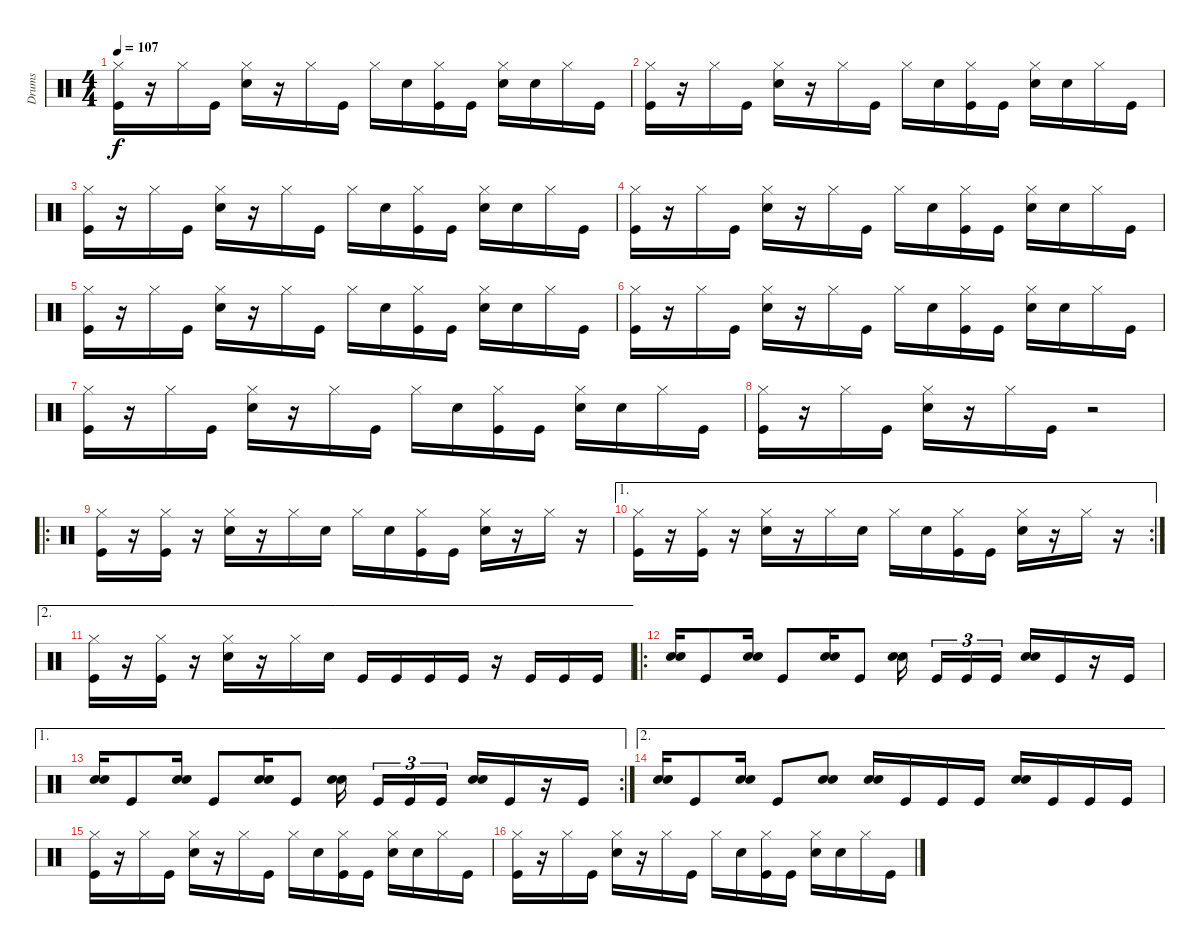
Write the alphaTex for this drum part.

\track ("Drums" "Drums") {instrument percussion}
\staff {score}
\articulation defaults
\ts (4 4)
\tempo 107
\clef neutral
\ks c
("Hi-Hat (closed)" "Kick (hit)").16{dy f} r.16 "Hi-Hat (closed)".16 "Kick (hit)".16 ("Hi-Hat (closed)" "Snare (hit) 2").16 r.16 "Hi-Hat (closed)".16 "Kick (hit)".16 "Hi-Hat (closed)".16 "Snare (hit) 2".16 ("Hi-Hat (closed)" "Kick (hit)").16 "Kick (hit)".16 ("Hi-Hat (closed)" "Snare (hit) 2").16 "Snare (hit) 2".16 "Hi-Hat (closed)".16 "Kick (hit)".16 |
("Hi-Hat (closed)" "Kick (hit)").16 r.16 "Hi-Hat (closed)".16 "Kick (hit)".16 ("Hi-Hat (closed)" "Snare (hit) 2").16 r.16 "Hi-Hat (closed)".16 "Kick (hit)".16 "Hi-Hat (closed)".16 "Snare (hit) 2".16 ("Hi-Hat (closed)" "Kick (hit)").16 "Kick (hit)".16 ("Hi-Hat (closed)" "Snare (hit) 2").16 "Snare (hit) 2".16 "Hi-Hat (closed)".16 "Kick (hit)".16 |
("Hi-Hat (closed)" "Kick (hit)").16 r.16 "Hi-Hat (closed)".16 "Kick (hit)".16 ("Hi-Hat (closed)" "Snare (hit) 2").16 r.16 "Hi-Hat (closed)".16 "Kick (hit)".16 "Hi-Hat (closed)".16 "Snare (hit) 2".16 ("Hi-Hat (closed)" "Kick (hit)").16 "Kick (hit)".16 ("Hi-Hat (closed)" "Snare (hit) 2").16 "Snare (hit) 2".16 "Hi-Hat (closed)".16 "Kick (hit)".16 |
("Hi-Hat (closed)" "Kick (hit)").16 r.16 "Hi-Hat (closed)".16 "Kick (hit)".16 ("Hi-Hat (closed)" "Snare (hit) 2").16 r.16 "Hi-Hat (closed)".16 "Kick (hit)".16 "Hi-Hat (closed)".16 "Snare (hit) 2".16 ("Hi-Hat (closed)" "Kick (hit)").16 "Kick (hit)".16 ("Hi-Hat (closed)" "Snare (hit) 2").16 "Snare (hit) 2".16 "Hi-Hat (closed)".16 "Kick (hit)".16 |
("Hi-Hat (closed)" "Kick (hit)").16 r.16 "Hi-Hat (closed)".16 "Kick (hit)".16 ("Hi-Hat (closed)" "Snare (hit) 2").16 r.16 "Hi-Hat (closed)".16 "Kick (hit)".16 "Hi-Hat (closed)".16 "Snare (hit) 2".16 ("Hi-Hat (closed)" "Kick (hit)").16 "Kick (hit)".16 ("Hi-Hat (closed)" "Snare (hit) 2").16 "Snare (hit) 2".16 "Hi-Hat (closed)".16 "Kick (hit)".16 |
("Hi-Hat (closed)" "Kick (hit)").16 r.16 "Hi-Hat (closed)".16 "Kick (hit)".16 ("Hi-Hat (closed)" "Snare (hit) 2").16 r.16 "Hi-Hat (closed)".16 "Kick (hit)".16 "Hi-Hat (closed)".16 "Snare (hit) 2".16 ("Hi-Hat (closed)" "Kick (hit)").16 "Kick (hit)".16 ("Hi-Hat (closed)" "Snare (hit) 2").16 "Snare (hit) 2".16 "Hi-Hat (closed)".16 "Kick (hit)".16 |
("Hi-Hat (closed)" "Kick (hit)").16 r.16 "Hi-Hat (closed)".16 "Kick (hit)".16 ("Hi-Hat (closed)" "Snare (hit) 2").16 r.16 "Hi-Hat (closed)".16 "Kick (hit)".16 "Hi-Hat (closed)".16 "Snare (hit) 2".16 ("Hi-Hat (closed)" "Kick (hit)").16 "Kick (hit)".16 ("Hi-Hat (closed)" "Snare (hit) 2").16 "Snare (hit) 2".16 "Hi-Hat (closed)".16 "Kick (hit)".16 |
("Hi-Hat (closed)" "Kick (hit)").16 r.16 "Hi-Hat (closed)".16 "Kick (hit)".16 ("Hi-Hat (closed)" "Snare (hit) 2").16 r.16 "Hi-Hat (closed)".16 "Kick (hit)".16 r.2 |
\ro
("Hi-Hat (closed)" "Kick (hit)").16 r.16 ("Hi-Hat (closed)" "Kick (hit)").16 r.16 ("Hi-Hat (closed)" "Snare (hit) 2").16 r.16 "Hi-Hat (closed)".16 "Snare (hit) 2".16 "Hi-Hat (closed)".16 "Snare (hit) 2".16 ("Hi-Hat (closed)" "Kick (hit)").16 "Kick (hit)".16 ("Hi-Hat (closed)" "Snare (hit) 2").16 r.16 "Hi-Hat (closed)".16 r.16 |
\ae 1
\rc 2
("Hi-Hat (closed)" "Kick (hit)").16 r.16 ("Hi-Hat (closed)" "Kick (hit)").16 r.16 ("Hi-Hat (closed)" "Snare (hit) 2").16 r.16 "Hi-Hat (closed)".16 "Snare (hit) 2".16 "Hi-Hat (closed)".16 "Snare (hit) 2".16 ("Hi-Hat (closed)" "Kick (hit)").16 "Kick (hit)".16 ("Hi-Hat (closed)" "Snare (hit) 2").16 r.16 "Hi-Hat (closed)".16 r.16 |
\ae 2
("Hi-Hat (closed)" "Kick (hit)").16 r.16 ("Hi-Hat (closed)" "Kick (hit)").16 r.16 ("Hi-Hat (closed)" "Snare (hit) 2").16 r.16 "Hi-Hat (closed)".16 "Snare (hit) 2".16 "Kick (hit)".16 "Kick (hit)".16 "Kick (hit)".16 "Kick (hit)".16 r.16 "Kick (hit)".16 "Kick (hit)".16 "Kick (hit)".16 |
\ro
("Snare (hit) 2" "Snare (hit) 2").16 "Kick (hit)".8 ("Snare (hit) 2" "Snare (hit) 2").16 "Kick (hit)".8 ("Snare (hit) 2" "Snare (hit) 2").16 "Kick (hit)".8 ("Snare (hit) 2" "Snare (hit) 2").16 "Kick (hit)".16{tu (3 2)} "Kick (hit)".16{tu (3 2)} "Kick (hit)".16{tu (3 2)} ("Snare (hit) 2" "Snare (hit) 2").16 "Kick (hit)".16 r.16 "Kick (hit)".16 |
\ae 1
\rc 2
("Snare (hit) 2" "Snare (hit) 2").16 "Kick (hit)".8 ("Snare (hit) 2" "Snare (hit) 2").16 "Kick (hit)".8 ("Snare (hit) 2" "Snare (hit) 2").16 "Kick (hit)".8 ("Snare (hit) 2" "Snare (hit) 2").16 "Kick (hit)".16{tu (3 2)} "Kick (hit)".16{tu (3 2)} "Kick (hit)".16{tu (3 2)} ("Snare (hit) 2" "Snare (hit) 2").16 "Kick (hit)".16 r.16 "Kick (hit)".16 |
\ae 2
("Snare (hit) 2" "Snare (hit) 2").16 "Kick (hit)".8 ("Snare (hit) 2" "Snare (hit) 2").16 "Kick (hit)".8 ("Snare (hit) 2" "Snare (hit) 2").8 ("Snare (hit) 2" "Snare (hit) 2").16 "Kick (hit)".16 "Kick (hit)".16 "Kick (hit)".16 ("Snare (hit) 2" "Snare (hit) 2").16 "Kick (hit)".16 "Kick (hit)".16 "Kick (hit)".16 |
("Hi-Hat (closed)" "Kick (hit)").16 r.16 "Hi-Hat (closed)".16 "Kick (hit)".16 ("Hi-Hat (closed)" "Snare (hit) 2").16 r.16 "Hi-Hat (closed)".16 "Kick (hit)".16 "Hi-Hat (closed)".16 "Snare (hit) 2".16 ("Hi-Hat (closed)" "Kick (hit)").16 "Kick (hit)".16 ("Hi-Hat (closed)" "Snare (hit) 2").16 "Snare (hit) 2".16 "Hi-Hat (closed)".16 "Kick (hit)".16 |
("Hi-Hat (closed)" "Kick (hit)").16 r.16 "Hi-Hat (closed)".16 "Kick (hit)".16 ("Hi-Hat (closed)" "Snare (hit) 2").16 r.16 "Hi-Hat (closed)".16 "Kick (hit)".16 "Hi-Hat (closed)".16 "Snare (hit) 2".16 ("Hi-Hat (closed)" "Kick (hit)").16 "Kick (hit)".16 ("Hi-Hat (closed)" "Snare (hit) 2").16 "Snare (hit) 2".16 "Hi-Hat (closed)".16 "Kick (hit)".16
